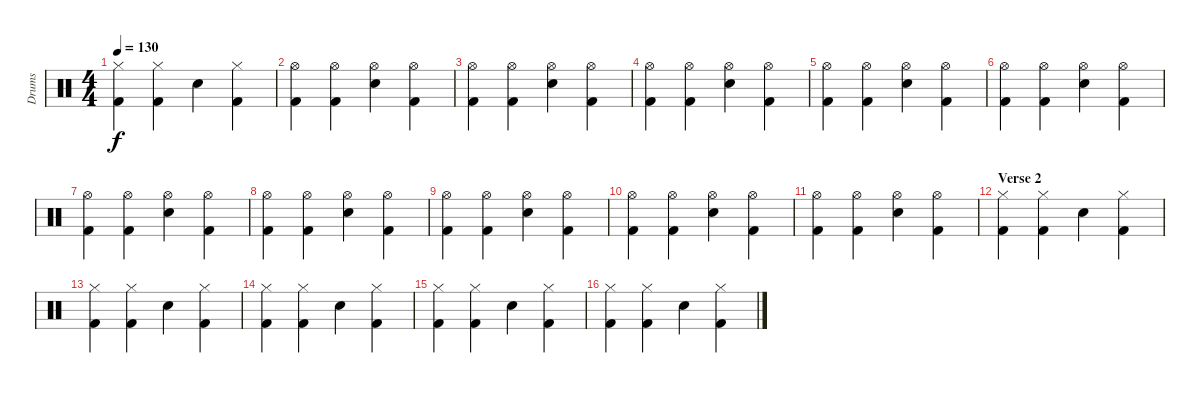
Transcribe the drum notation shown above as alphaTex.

\track ("Drums" "Drums") {instrument percussion}
\staff {score}
\articulation defaults
\ts (4 4)
\tempo 130
\clef neutral
\ks c
("Kick (hit) 2" "Hi-Hat (closed)").4{dy f} ("Kick (hit) 2" "Hi-Hat (closed)").4 "Electric Snare (hit)".4 ("Kick (hit) 2" "Hi-Hat (closed)").4 |
("Kick (hit) 2" "Hi-Hat (open)").4 ("Kick (hit) 2" "Hi-Hat (open)").4 ("Electric Snare (hit)" "Hi-Hat (open)").4 ("Kick (hit) 2" "Hi-Hat (open)").4 |
("Kick (hit) 2" "Hi-Hat (open)").4 ("Kick (hit) 2" "Hi-Hat (open)").4 ("Electric Snare (hit)" "Hi-Hat (open)").4 ("Kick (hit) 2" "Hi-Hat (open)").4 |
("Kick (hit) 2" "Hi-Hat (open)").4 ("Kick (hit) 2" "Hi-Hat (open)").4 ("Electric Snare (hit)" "Hi-Hat (open)").4 ("Kick (hit) 2" "Hi-Hat (open)").4 |
("Kick (hit) 2" "Hi-Hat (open)").4 ("Kick (hit) 2" "Hi-Hat (open)").4 ("Electric Snare (hit)" "Hi-Hat (open)").4 ("Kick (hit) 2" "Hi-Hat (open)").4 |
("Kick (hit) 2" "Hi-Hat (open)").4 ("Kick (hit) 2" "Hi-Hat (open)").4 ("Electric Snare (hit)" "Hi-Hat (open)").4 ("Kick (hit) 2" "Hi-Hat (open)").4 |
("Kick (hit) 2" "Hi-Hat (open)").4 ("Kick (hit) 2" "Hi-Hat (open)").4 ("Electric Snare (hit)" "Hi-Hat (open)").4 ("Kick (hit) 2" "Hi-Hat (open)").4 |
("Kick (hit) 2" "Hi-Hat (open)").4 ("Kick (hit) 2" "Hi-Hat (open)").4 ("Electric Snare (hit)" "Hi-Hat (open)").4 ("Kick (hit) 2" "Hi-Hat (open)").4 |
("Kick (hit) 2" "Hi-Hat (open)").4 ("Kick (hit) 2" "Hi-Hat (open)").4 ("Electric Snare (hit)" "Hi-Hat (open)").4 ("Kick (hit) 2" "Hi-Hat (open)").4 |
("Kick (hit) 2" "Hi-Hat (open)").4 ("Kick (hit) 2" "Hi-Hat (open)").4 ("Electric Snare (hit)" "Hi-Hat (open)").4 ("Kick (hit) 2" "Hi-Hat (open)").4 |
("Kick (hit) 2" "Hi-Hat (open)").4 ("Kick (hit) 2" "Hi-Hat (open)").4 ("Electric Snare (hit)" "Hi-Hat (open)").4 ("Kick (hit) 2" "Hi-Hat (open)").4 |
\section ("" "Verse 2")
("Kick (hit) 2" "Hi-Hat (closed)").4 ("Kick (hit) 2" "Hi-Hat (closed)").4 "Electric Snare (hit)".4 ("Kick (hit) 2" "Hi-Hat (closed)").4 |
("Kick (hit) 2" "Hi-Hat (closed)").4 ("Kick (hit) 2" "Hi-Hat (closed)").4 "Electric Snare (hit)".4 ("Kick (hit) 2" "Hi-Hat (closed)").4 |
("Kick (hit) 2" "Hi-Hat (closed)").4 ("Kick (hit) 2" "Hi-Hat (closed)").4 "Electric Snare (hit)".4 ("Kick (hit) 2" "Hi-Hat (closed)").4 |
("Kick (hit) 2" "Hi-Hat (closed)").4 ("Kick (hit) 2" "Hi-Hat (closed)").4 "Electric Snare (hit)".4 ("Kick (hit) 2" "Hi-Hat (closed)").4 |
("Kick (hit) 2" "Hi-Hat (closed)").4 ("Kick (hit) 2" "Hi-Hat (closed)").4 "Electric Snare (hit)".4 ("Kick (hit) 2" "Hi-Hat (closed)").4
